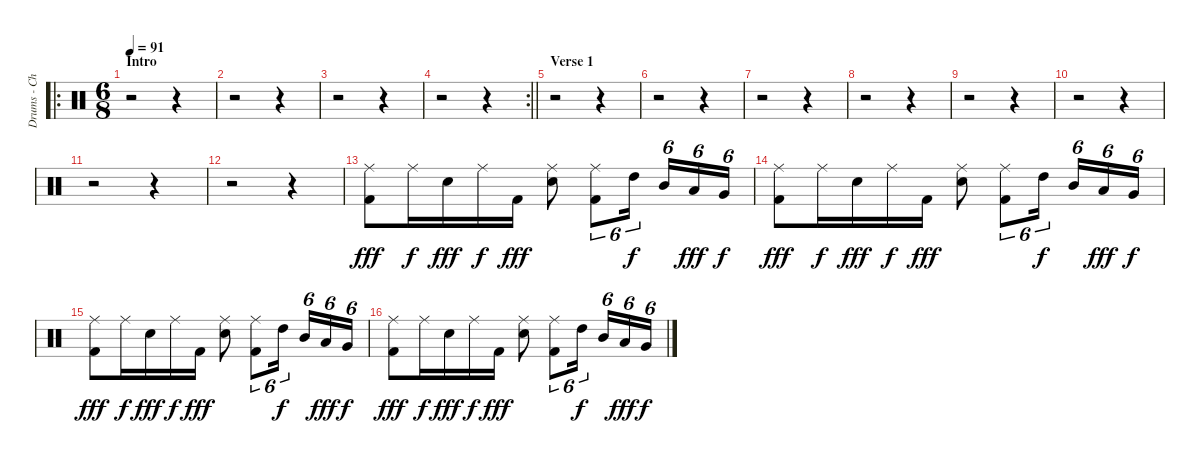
\track ("Drums - Chad" "Drums - Ch") {instrument percussion}
\staff {score}
\articulation defaults
\ro
\ts (6 8)
\section ("" "Intro")
\tempo 91
\clef neutral
\ks c
r.2{dy fff} r.4 |
r.2 r.4 |
r.2 r.4 |
\rc 2
\barLineRight lightlight
r.2 r.4 |
\section ("" "Verse 1")
r.2 r.4 |
r.2 r.4 |
r.2 r.4 |
r.2 r.4 |
r.2 r.4 |
r.2 r.4 |
r.2 r.4 |
r.2 r.4 |
("Ride (middle)" "Kick (hit) 2").8 "Ride (middle)".16{dy f} "Electric Snare (hit)".16{dy fff} "Ride (middle)".16{dy f} "Kick (hit) 2".16{dy fff} ("Ride (middle)" "Electric Snare (hit)").8 ("Ride (middle)" "Kick (hit) 2").8{tu (6 4)} "High Tom (hit)".16{tu (6 4) dy f} "Mid Tom (hit)".16{tu (6 4)} "Low Tom (hit)".16{tu (6 4) dy fff} "Very Low Tom (hit)".16{tu (6 4) dy f} |
("Ride (middle)" "Kick (hit) 2").8{dy fff} "Ride (middle)".16{dy f} "Electric Snare (hit)".16{dy fff} "Ride (middle)".16{dy f} "Kick (hit) 2".16{dy fff} ("Ride (middle)" "Electric Snare (hit)").8 ("Ride (middle)" "Kick (hit) 2").8{tu (6 4)} "High Tom (hit)".16{tu (6 4) dy f} "Mid Tom (hit)".16{tu (6 4)} "Low Tom (hit)".16{tu (6 4) dy fff} "Very Low Tom (hit)".16{tu (6 4) dy f} |
("Ride (middle)" "Kick (hit) 2").8{dy fff} "Ride (middle)".16{dy f} "Electric Snare (hit)".16{dy fff} "Ride (middle)".16{dy f} "Kick (hit) 2".16{dy fff} ("Ride (middle)" "Electric Snare (hit)").8 ("Ride (middle)" "Kick (hit) 2").8{tu (6 4)} "High Tom (hit)".16{tu (6 4) dy f} "Mid Tom (hit)".16{tu (6 4)} "Low Tom (hit)".16{tu (6 4) dy fff} "Very Low Tom (hit)".16{tu (6 4) dy f} |
("Ride (middle)" "Kick (hit) 2").8{dy fff} "Ride (middle)".16{dy f} "Electric Snare (hit)".16{dy fff} "Ride (middle)".16{dy f} "Kick (hit) 2".16{dy fff} ("Ride (middle)" "Electric Snare (hit)").8 ("Ride (middle)" "Kick (hit) 2").8{tu (6 4)} "High Tom (hit)".16{tu (6 4) dy f} "Mid Tom (hit)".16{tu (6 4)} "Low Tom (hit)".16{tu (6 4) dy fff} "Very Low Tom (hit)".16{tu (6 4) dy f}
